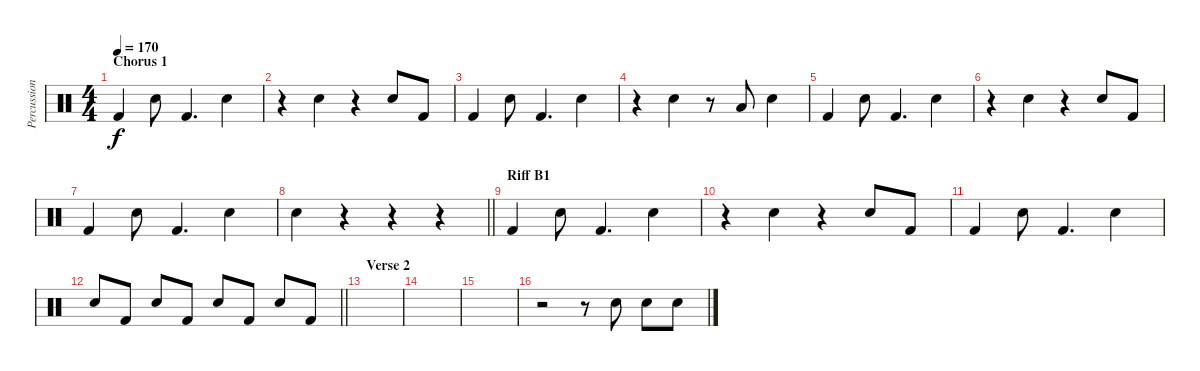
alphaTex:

\track ("Percussion" "Percussion") {instrument percussion}
\staff {score}
\articulation defaults
\ts (4 4)
\section ("" "Chorus 1")
\tempo 170
\clef neutral
\ks c "Kick (hit) 2".4{dy f} "Hand Clap (hit)".8 "Kick (hit) 2".4{d} "Hand Clap (hit)".4
|
r.4 "Hand Clap (hit)".4 r.4 "Hand Clap (hit)".8 "Kick (hit) 2".8 |
"Kick (hit) 2".4 "Hand Clap (hit)".8 "Kick (hit) 2".4{d} "Hand Clap (hit)".4 |
r.4 "Hand Clap (hit)".4 r.8 "Low Tom (hit)".8 "Hand Clap (hit)".4 |
"Kick (hit) 2".4 "Hand Clap (hit)".8 "Kick (hit) 2".4{d} "Hand Clap (hit)".4 |
r.4 "Hand Clap (hit)".4 r.4 "Hand Clap (hit)".8 "Kick (hit) 2".8 |
"Kick (hit) 2".4 "Hand Clap (hit)".8 "Kick (hit) 2".4{d} "Hand Clap (hit)".4 |
\barLineRight lightlight "Hand Clap (hit)".4
r.4 r.4 r.4 |
\section ("" "Riff B1")
"Kick (hit) 2".4 "Hand Clap (hit)".8 "Kick (hit) 2".4{d} "Hand Clap (hit)".4 |
r.4 "Hand Clap (hit)".4 r.4 "Hand Clap (hit)".8 "Kick (hit) 2".8 |
"Kick (hit) 2".4 "Hand Clap (hit)".8 "Kick (hit) 2".4{d} "Hand Clap (hit)".4 |
\barLineRight lightlight "Hand Clap (hit)".8 "Kick (hit) 2".8 "Hand Clap (hit)".8 "Kick (hit) 2".8 "Hand Clap (hit)".8 "Kick (hit) 2".8 "Hand Clap (hit)".8 "Kick (hit) 2".8
|
\section ("" "Verse 2")
|
|
|
r.2 r.8 "Electric Snare (hit)".8 "Electric Snare (hit)".8 "Electric Snare (hit)".8
